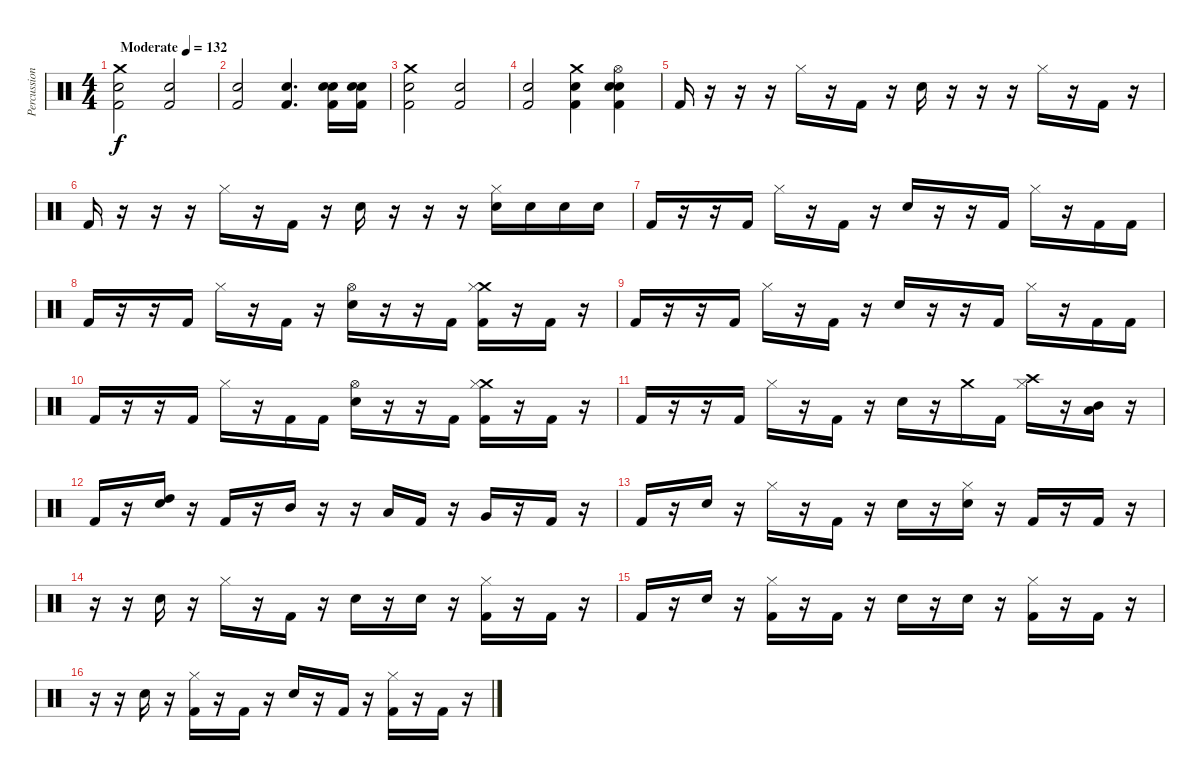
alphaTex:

\track ("Percussion" "Percussion") {instrument percussion}
\staff {score}
\articulation defaults
\ts (4 4)
\tempo (132 "Moderate")
\clef neutral
\ks c
("Snare (hit) 2" "Kick (hit) 2" "Crash medium (hit)").2{dy f} ("Snare (hit) 2" "Kick (hit) 2").2 |
("Snare (hit) 2" "Kick (hit) 2").2 ("Snare (hit) 2" "Kick (hit) 2").4{d} ("Electric Snare (hit)" "Kick (hit) 2" "Snare (hit) 2").16 ("Electric Snare (hit)" "Kick (hit) 2" "Snare (hit) 2").16 |
("Snare (hit) 2" "Kick (hit) 2" "Crash medium (hit)").2 ("Snare (hit) 2" "Kick (hit) 2").2 |
("Snare (hit) 2" "Kick (hit) 2").2 ("Snare (hit) 2" "Kick (hit) 2" "Crash medium (hit)").4 ("Electric Snare (hit)" "Kick (hit) 2" "Hi-Hat (open)" "Snare (hit) 2").4 |
"Kick (hit) 2".16 r.16 r.16 r.16 "Hi-Hat (closed)".16 r.16 "Kick (hit) 2".16 r.16 "Snare (hit) 2".16 r.16 r.16 r.16 "Hi-Hat (closed)".16 r.16 "Kick (hit) 2".16 r.16 |
"Kick (hit) 2".16 r.16 r.16 r.16 "Hi-Hat (closed)".16 r.16 "Kick (hit) 2".16 r.16 "Snare (hit) 2".16 r.16 r.16 r.16 ("Hi-Hat (closed)" "Snare (hit) 2").16 "Snare (hit) 2".16 "Snare (hit) 2".16 "Snare (hit) 2".16 |
"Kick (hit) 2".16 r.16 r.16 "Kick (hit) 2".16 "Hi-Hat (closed)".16 r.16 "Kick (hit) 2".16 r.16 "Snare (hit) 2".16 r.16 r.16 "Kick (hit) 2".16 "Hi-Hat (closed)".16 r.16 "Kick (hit) 2".16 "Kick (hit) 2".16 |
"Kick (hit) 2".16 r.16 r.16 "Kick (hit) 2".16 "Hi-Hat (closed)".16 r.16 "Kick (hit) 2".16 r.16 ("Snare (hit) 2" "Hi-Hat (open)").16 r.16 r.16 "Kick (hit) 2".16 ("Kick (hit) 2" "Crash medium (hit)" "Hi-Hat (closed)").16 r.16 "Kick (hit) 2".16 r.16 |
"Kick (hit) 2".16 r.16 r.16 "Kick (hit) 2".16 "Hi-Hat (closed)".16 r.16 "Kick (hit) 2".16 r.16 "Snare (hit) 2".16 r.16 r.16 "Kick (hit) 2".16 "Hi-Hat (closed)".16 r.16 "Kick (hit) 2".16 "Kick (hit) 2".16 |
"Kick (hit) 2".16 r.16 r.16 "Kick (hit) 2".16 "Hi-Hat (closed)".16 r.16 "Kick (hit) 2".16 "Kick (hit) 2".16 ("Snare (hit) 2" "Hi-Hat (open)").16 r.16 r.16 "Kick (hit) 2".16 ("Kick (hit) 2" "Crash medium (hit)" "Hi-Hat (closed)").16 r.16 "Kick (hit) 2".16 r.16 |
"Kick (hit) 2".16 r.16 r.16 "Kick (hit) 2".16 "Hi-Hat (closed)".16 r.16 "Kick (hit) 2".16 r.16 "Snare (hit) 2".16 r.16 "Crash medium (hit)".16 "Kick (hit) 2".16 ("Crash high (hit)" "Hi-Hat (closed)").16 r.16 ("Mid Tom (hit)" "Low Tom (hit)").16 r.16 |
"Kick (hit) 2".16 r.16 ("High Tom (hit)" "Snare (hit) 2").16 r.16 "Kick (hit) 2".16 r.16 "Mid Tom (hit)".16 r.16 r.16 "Low Tom (hit)".16 "Kick (hit) 2".16 r.16 "Very Low Tom (hit)".16 r.16 "Kick (hit) 2".16 r.16 |
"Kick (hit) 2".16 r.16 "Snare (hit) 2".16 r.16 "Hi-Hat (closed)".16 r.16 "Kick (hit) 2".16 r.16 "Snare (hit) 2".16 r.16 ("Snare (hit) 2" "Hi-Hat (closed)").16 r.16 "Kick (hit) 2".16 r.16 "Kick (hit) 2".16 r.16 |
r.16 r.16 "Snare (hit) 2".16 r.16 "Hi-Hat (closed)".16 r.16 "Kick (hit) 2".16 r.16 "Snare (hit) 2".16 r.16 "Snare (hit) 2".16 r.16 ("Kick (hit) 2" "Hi-Hat (closed)").16 r.16 "Kick (hit) 2".16 r.16 |
"Kick (hit) 2".16 r.16 "Snare (hit) 2".16 r.16 ("Kick (hit) 2" "Hi-Hat (closed)").16 r.16 "Kick (hit) 2".16 r.16 "Snare (hit) 2".16 r.16 "Snare (hit) 2".16 r.16 ("Kick (hit) 2" "Hi-Hat (closed)").16 r.16 "Kick (hit) 2".16 r.16 |
r.16 r.16 "Snare (hit) 2".16 r.16 ("Kick (hit) 2" "Hi-Hat (closed)").16 r.16 "Kick (hit) 2".16 r.16 "Snare (hit) 2".16 r.16 "Kick (hit) 2".16 r.16 ("Kick (hit) 2" "Hi-Hat (closed)").16 r.16 "Kick (hit) 2".16 r.16
